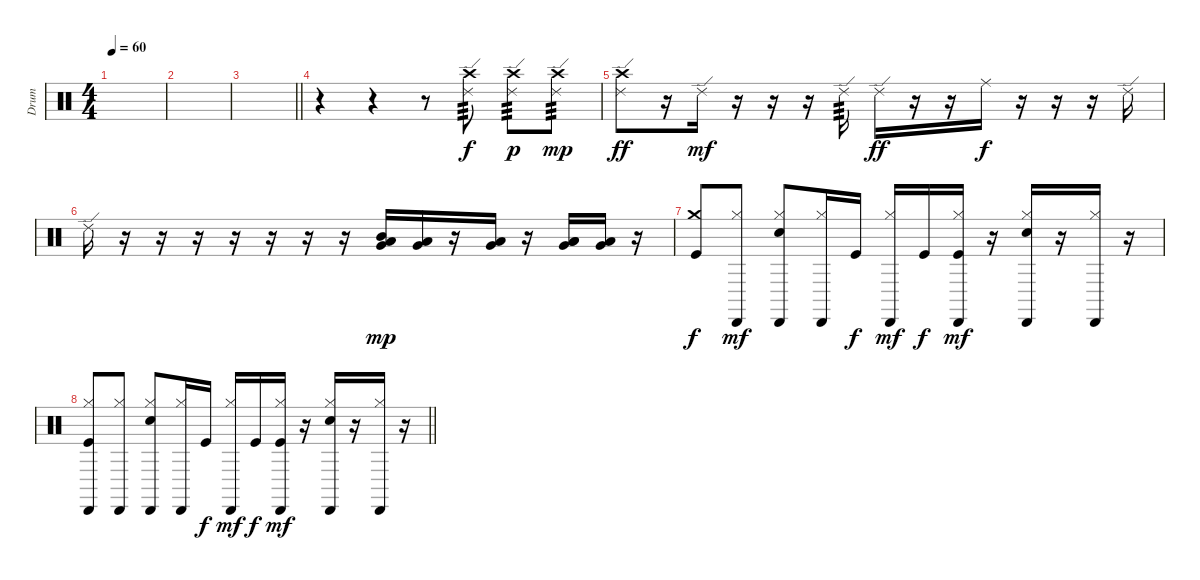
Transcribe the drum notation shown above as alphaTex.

\track ("Drum" "Drum") {instrument percussion}
\staff {score}
\articulation defaults
\ts (4 4)
\tempo 60
\clef neutral
\ks c
|
|
\barLineRight lightlight
|
r.4 r.4 r.8{volume 13} ("Ride (edge) 2" "Crash high (hit)").8{tp 3} ("Ride (edge) 2" "Crash high (hit)").8{tp 3 dy p} ("Ride (edge) 2" "Crash high (hit)").8{tp 3 dy mp} |
("Ride (edge) 2" "Crash high (hit)").8{dy ff} r.16 "Ride (edge) 2".16{dy mf} r.16 r.16 r.16 "Ride (edge) 2".16{tp 3} "Ride (edge) 2".16{dy ff} r.16 r.16 "Ride (middle)".16{dy f} r.16 r.16 r.16 "Ride (edge) 2".16 |
"Ride (edge) 2".16 r.16 r.16 r.16 r.16 r.16 r.16 r.16 ("Mid Tom (hit)" "Very Low Tom (hit)" "Low Tom (hit)").16{dy mp} ("Low Floor Tom (hit)" "Very Low Tom (hit)").16 r.16 ("Low Floor Tom (hit)" "Very Low Tom (hit)").16 r.16 ("Low Floor Tom (hit)" "Low Tom (hit)" "Very Low Tom (hit)").16 ("Very Low Tom (hit)" "Low Floor Tom (hit)").16 r.16 |
("Crash medium (hit)" "Kick (hit)").8{dy f} ("Hi-Hat (closed)" "Cabasa (hit)").8{dy mf} ("Hi-Hat (closed)" "Cabasa (hit)" "Electric Snare (hit)").8 ("Hi-Hat (closed)" "Cabasa (hit)").16 "Kick (hit)".16{dy f} ("Hi-Hat (closed)" "Cabasa (hit)").16{dy mf} "Kick (hit)".16{dy f} ("Hi-Hat (closed)" "Cabasa (hit)" "Kick (hit)").16{dy mf} r.16 ("Hi-Hat (closed)" "Cabasa (hit)" "Electric Snare (hit)").16 r.16 ("Hi-Hat (closed)" "Cabasa (hit)").16 r.16 |
\barLineRight lightlight
("Hi-Hat (closed)" "Cabasa (hit)" "Kick (hit)").8 ("Hi-Hat (closed)" "Cabasa (hit)").8 ("Hi-Hat (closed)" "Cabasa (hit)" "Electric Snare (hit)").8 ("Hi-Hat (closed)" "Cabasa (hit)").16 "Kick (hit)".16{dy f} ("Hi-Hat (closed)" "Cabasa (hit)").16{dy mf} "Kick (hit)".16{dy f} ("Hi-Hat (closed)" "Cabasa (hit)" "Kick (hit)").16{dy mf} r.16 ("Hi-Hat (closed)" "Cabasa (hit)" "Electric Snare (hit)").16 r.16 ("Hi-Hat (closed)" "Cabasa (hit)").16 r.16
